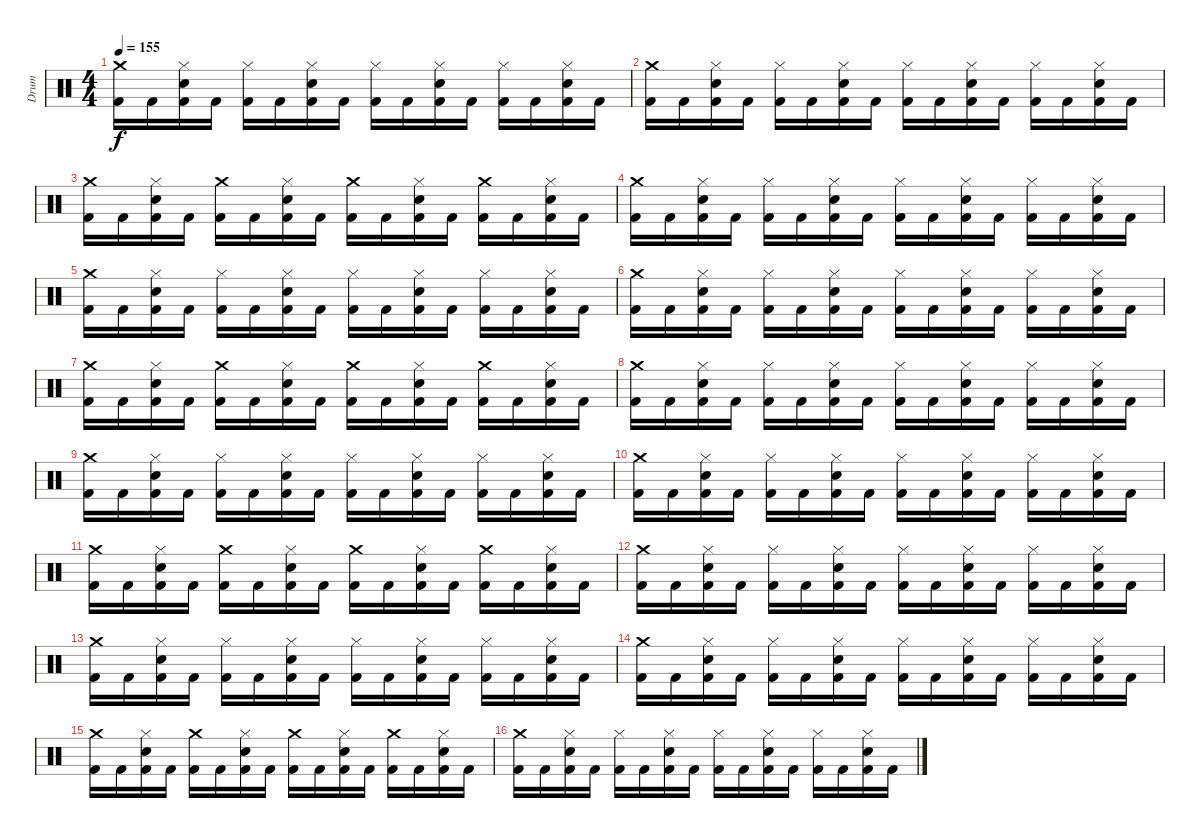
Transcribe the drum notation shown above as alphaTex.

\track ("Drum" "Drum") {instrument percussion}
\staff {score}
\articulation defaults
\ts (4 4)
\tempo 155
\clef neutral
\ks c
("Kick (hit) 2" "Crash medium (hit)").16{dy f} "Kick (hit) 2".16 ("Kick (hit) 2" "Hi-Hat (closed)" "Electric Snare (hit)").16 "Kick (hit) 2".16 ("Kick (hit) 2" "Hi-Hat (closed)").16 "Kick (hit) 2".16 ("Kick (hit) 2" "Hi-Hat (closed)" "Electric Snare (hit)").16 "Kick (hit) 2".16 ("Kick (hit) 2" "Hi-Hat (closed)").16 "Kick (hit) 2".16 ("Kick (hit) 2" "Hi-Hat (closed)" "Electric Snare (hit)").16 "Kick (hit) 2".16 ("Kick (hit) 2" "Hi-Hat (closed)").16 "Kick (hit) 2".16 ("Kick (hit) 2" "Hi-Hat (closed)" "Electric Snare (hit)").16 "Kick (hit) 2".16 |
("Kick (hit) 2" "Crash medium (hit)").16 "Kick (hit) 2".16 ("Kick (hit) 2" "Hi-Hat (closed)" "Electric Snare (hit)").16 "Kick (hit) 2".16 ("Kick (hit) 2" "Hi-Hat (closed)").16 "Kick (hit) 2".16 ("Kick (hit) 2" "Hi-Hat (closed)" "Electric Snare (hit)").16 "Kick (hit) 2".16 ("Kick (hit) 2" "Hi-Hat (closed)").16 "Kick (hit) 2".16 ("Kick (hit) 2" "Hi-Hat (closed)" "Electric Snare (hit)").16 "Kick (hit) 2".16 ("Kick (hit) 2" "Hi-Hat (closed)").16 "Kick (hit) 2".16 ("Kick (hit) 2" "Hi-Hat (closed)" "Electric Snare (hit)").16 "Kick (hit) 2".16 |
("Kick (hit) 2" "Crash medium (hit)").16 "Kick (hit) 2".16 ("Kick (hit) 2" "Hi-Hat (closed)" "Electric Snare (hit)").16 "Kick (hit) 2".16 ("Kick (hit) 2" "Crash medium (hit)").16 "Kick (hit) 2".16 ("Kick (hit) 2" "Hi-Hat (closed)" "Electric Snare (hit)").16 "Kick (hit) 2".16 ("Kick (hit) 2" "Crash medium (hit)").16 "Kick (hit) 2".16 ("Kick (hit) 2" "Hi-Hat (closed)" "Electric Snare (hit)").16 "Kick (hit) 2".16 ("Kick (hit) 2" "Crash medium (hit)").16 "Kick (hit) 2".16 ("Kick (hit) 2" "Hi-Hat (closed)" "Electric Snare (hit)").16 "Kick (hit) 2".16 |
("Kick (hit) 2" "Crash medium (hit)").16 "Kick (hit) 2".16 ("Kick (hit) 2" "Hi-Hat (closed)" "Electric Snare (hit)").16 "Kick (hit) 2".16 ("Kick (hit) 2" "Hi-Hat (closed)").16 "Kick (hit) 2".16 ("Kick (hit) 2" "Hi-Hat (closed)" "Electric Snare (hit)").16 "Kick (hit) 2".16 ("Kick (hit) 2" "Hi-Hat (closed)").16 "Kick (hit) 2".16 ("Kick (hit) 2" "Hi-Hat (closed)" "Electric Snare (hit)").16 "Kick (hit) 2".16 ("Kick (hit) 2" "Hi-Hat (closed)").16 "Kick (hit) 2".16 ("Kick (hit) 2" "Hi-Hat (closed)" "Electric Snare (hit)").16 "Kick (hit) 2".16 |
("Kick (hit) 2" "Crash medium (hit)").16 "Kick (hit) 2".16 ("Kick (hit) 2" "Hi-Hat (closed)" "Electric Snare (hit)").16 "Kick (hit) 2".16 ("Kick (hit) 2" "Hi-Hat (closed)").16 "Kick (hit) 2".16 ("Kick (hit) 2" "Hi-Hat (closed)" "Electric Snare (hit)").16 "Kick (hit) 2".16 ("Kick (hit) 2" "Hi-Hat (closed)").16 "Kick (hit) 2".16 ("Kick (hit) 2" "Hi-Hat (closed)" "Electric Snare (hit)").16 "Kick (hit) 2".16 ("Kick (hit) 2" "Hi-Hat (closed)").16 "Kick (hit) 2".16 ("Kick (hit) 2" "Hi-Hat (closed)" "Electric Snare (hit)").16 "Kick (hit) 2".16 |
("Kick (hit) 2" "Crash medium (hit)").16 "Kick (hit) 2".16 ("Kick (hit) 2" "Hi-Hat (closed)" "Electric Snare (hit)").16 "Kick (hit) 2".16 ("Kick (hit) 2" "Hi-Hat (closed)").16 "Kick (hit) 2".16 ("Kick (hit) 2" "Hi-Hat (closed)" "Electric Snare (hit)").16 "Kick (hit) 2".16 ("Kick (hit) 2" "Hi-Hat (closed)").16 "Kick (hit) 2".16 ("Kick (hit) 2" "Hi-Hat (closed)" "Electric Snare (hit)").16 "Kick (hit) 2".16 ("Kick (hit) 2" "Hi-Hat (closed)").16 "Kick (hit) 2".16 ("Kick (hit) 2" "Hi-Hat (closed)" "Electric Snare (hit)").16 "Kick (hit) 2".16 |
("Kick (hit) 2" "Crash medium (hit)").16 "Kick (hit) 2".16 ("Kick (hit) 2" "Hi-Hat (closed)" "Electric Snare (hit)").16 "Kick (hit) 2".16 ("Kick (hit) 2" "Crash medium (hit)").16 "Kick (hit) 2".16 ("Kick (hit) 2" "Hi-Hat (closed)" "Electric Snare (hit)").16 "Kick (hit) 2".16 ("Kick (hit) 2" "Crash medium (hit)").16 "Kick (hit) 2".16 ("Kick (hit) 2" "Hi-Hat (closed)" "Electric Snare (hit)").16 "Kick (hit) 2".16 ("Kick (hit) 2" "Crash medium (hit)").16 "Kick (hit) 2".16 ("Kick (hit) 2" "Hi-Hat (closed)" "Electric Snare (hit)").16 "Kick (hit) 2".16 |
("Kick (hit) 2" "Crash medium (hit)").16 "Kick (hit) 2".16 ("Kick (hit) 2" "Hi-Hat (closed)" "Electric Snare (hit)").16 "Kick (hit) 2".16 ("Kick (hit) 2" "Hi-Hat (closed)").16 "Kick (hit) 2".16 ("Kick (hit) 2" "Hi-Hat (closed)" "Electric Snare (hit)").16 "Kick (hit) 2".16 ("Kick (hit) 2" "Hi-Hat (closed)").16 "Kick (hit) 2".16 ("Kick (hit) 2" "Hi-Hat (closed)" "Electric Snare (hit)").16 "Kick (hit) 2".16 ("Kick (hit) 2" "Hi-Hat (closed)").16 "Kick (hit) 2".16 ("Kick (hit) 2" "Hi-Hat (closed)" "Electric Snare (hit)").16 "Kick (hit) 2".16 |
("Kick (hit) 2" "Crash medium (hit)").16 "Kick (hit) 2".16 ("Kick (hit) 2" "Hi-Hat (closed)" "Electric Snare (hit)").16 "Kick (hit) 2".16 ("Kick (hit) 2" "Hi-Hat (closed)").16 "Kick (hit) 2".16 ("Kick (hit) 2" "Hi-Hat (closed)" "Electric Snare (hit)").16 "Kick (hit) 2".16 ("Kick (hit) 2" "Hi-Hat (closed)").16 "Kick (hit) 2".16 ("Kick (hit) 2" "Hi-Hat (closed)" "Electric Snare (hit)").16 "Kick (hit) 2".16 ("Kick (hit) 2" "Hi-Hat (closed)").16 "Kick (hit) 2".16 ("Kick (hit) 2" "Hi-Hat (closed)" "Electric Snare (hit)").16 "Kick (hit) 2".16 |
("Kick (hit) 2" "Crash medium (hit)").16 "Kick (hit) 2".16 ("Kick (hit) 2" "Hi-Hat (closed)" "Electric Snare (hit)").16 "Kick (hit) 2".16 ("Kick (hit) 2" "Hi-Hat (closed)").16 "Kick (hit) 2".16 ("Kick (hit) 2" "Hi-Hat (closed)" "Electric Snare (hit)").16 "Kick (hit) 2".16 ("Kick (hit) 2" "Hi-Hat (closed)").16 "Kick (hit) 2".16 ("Kick (hit) 2" "Hi-Hat (closed)" "Electric Snare (hit)").16 "Kick (hit) 2".16 ("Kick (hit) 2" "Hi-Hat (closed)").16 "Kick (hit) 2".16 ("Kick (hit) 2" "Hi-Hat (closed)" "Electric Snare (hit)").16 "Kick (hit) 2".16 |
("Kick (hit) 2" "Crash medium (hit)").16 "Kick (hit) 2".16 ("Kick (hit) 2" "Hi-Hat (closed)" "Electric Snare (hit)").16 "Kick (hit) 2".16 ("Kick (hit) 2" "Crash medium (hit)").16 "Kick (hit) 2".16 ("Kick (hit) 2" "Hi-Hat (closed)" "Electric Snare (hit)").16 "Kick (hit) 2".16 ("Kick (hit) 2" "Crash medium (hit)").16 "Kick (hit) 2".16 ("Kick (hit) 2" "Hi-Hat (closed)" "Electric Snare (hit)").16 "Kick (hit) 2".16 ("Kick (hit) 2" "Crash medium (hit)").16 "Kick (hit) 2".16 ("Kick (hit) 2" "Hi-Hat (closed)" "Electric Snare (hit)").16 "Kick (hit) 2".16 |
("Kick (hit) 2" "Crash medium (hit)").16 "Kick (hit) 2".16 ("Kick (hit) 2" "Hi-Hat (closed)" "Electric Snare (hit)").16 "Kick (hit) 2".16 ("Kick (hit) 2" "Hi-Hat (closed)").16 "Kick (hit) 2".16 ("Kick (hit) 2" "Hi-Hat (closed)" "Electric Snare (hit)").16 "Kick (hit) 2".16 ("Kick (hit) 2" "Hi-Hat (closed)").16 "Kick (hit) 2".16 ("Kick (hit) 2" "Hi-Hat (closed)" "Electric Snare (hit)").16 "Kick (hit) 2".16 ("Kick (hit) 2" "Hi-Hat (closed)").16 "Kick (hit) 2".16 ("Kick (hit) 2" "Hi-Hat (closed)" "Electric Snare (hit)").16 "Kick (hit) 2".16 |
("Kick (hit) 2" "Crash medium (hit)").16 "Kick (hit) 2".16 ("Kick (hit) 2" "Hi-Hat (closed)" "Electric Snare (hit)").16 "Kick (hit) 2".16 ("Kick (hit) 2" "Hi-Hat (closed)").16 "Kick (hit) 2".16 ("Kick (hit) 2" "Hi-Hat (closed)" "Electric Snare (hit)").16 "Kick (hit) 2".16 ("Kick (hit) 2" "Hi-Hat (closed)").16 "Kick (hit) 2".16 ("Kick (hit) 2" "Hi-Hat (closed)" "Electric Snare (hit)").16 "Kick (hit) 2".16 ("Kick (hit) 2" "Hi-Hat (closed)").16 "Kick (hit) 2".16 ("Kick (hit) 2" "Hi-Hat (closed)" "Electric Snare (hit)").16 "Kick (hit) 2".16 |
("Kick (hit) 2" "Crash medium (hit)").16 "Kick (hit) 2".16 ("Kick (hit) 2" "Hi-Hat (closed)" "Electric Snare (hit)").16 "Kick (hit) 2".16 ("Kick (hit) 2" "Hi-Hat (closed)").16 "Kick (hit) 2".16 ("Kick (hit) 2" "Hi-Hat (closed)" "Electric Snare (hit)").16 "Kick (hit) 2".16 ("Kick (hit) 2" "Hi-Hat (closed)").16 "Kick (hit) 2".16 ("Kick (hit) 2" "Hi-Hat (closed)" "Electric Snare (hit)").16 "Kick (hit) 2".16 ("Kick (hit) 2" "Hi-Hat (closed)").16 "Kick (hit) 2".16 ("Kick (hit) 2" "Hi-Hat (closed)" "Electric Snare (hit)").16 "Kick (hit) 2".16 |
("Kick (hit) 2" "Crash medium (hit)").16 "Kick (hit) 2".16 ("Kick (hit) 2" "Hi-Hat (closed)" "Electric Snare (hit)").16 "Kick (hit) 2".16 ("Kick (hit) 2" "Crash medium (hit)").16 "Kick (hit) 2".16 ("Kick (hit) 2" "Hi-Hat (closed)" "Electric Snare (hit)").16 "Kick (hit) 2".16 ("Kick (hit) 2" "Crash medium (hit)").16 "Kick (hit) 2".16 ("Kick (hit) 2" "Hi-Hat (closed)" "Electric Snare (hit)").16 "Kick (hit) 2".16 ("Kick (hit) 2" "Crash medium (hit)").16 "Kick (hit) 2".16 ("Kick (hit) 2" "Hi-Hat (closed)" "Electric Snare (hit)").16 "Kick (hit) 2".16 |
("Kick (hit) 2" "Crash medium (hit)").16 "Kick (hit) 2".16 ("Kick (hit) 2" "Hi-Hat (closed)" "Electric Snare (hit)").16 "Kick (hit) 2".16 ("Kick (hit) 2" "Hi-Hat (closed)").16 "Kick (hit) 2".16 ("Kick (hit) 2" "Hi-Hat (closed)" "Electric Snare (hit)").16 "Kick (hit) 2".16 ("Kick (hit) 2" "Hi-Hat (closed)").16 "Kick (hit) 2".16 ("Kick (hit) 2" "Hi-Hat (closed)" "Electric Snare (hit)").16 "Kick (hit) 2".16 ("Kick (hit) 2" "Hi-Hat (closed)").16 "Kick (hit) 2".16 ("Kick (hit) 2" "Hi-Hat (closed)" "Electric Snare (hit)").16 "Kick (hit) 2".16
